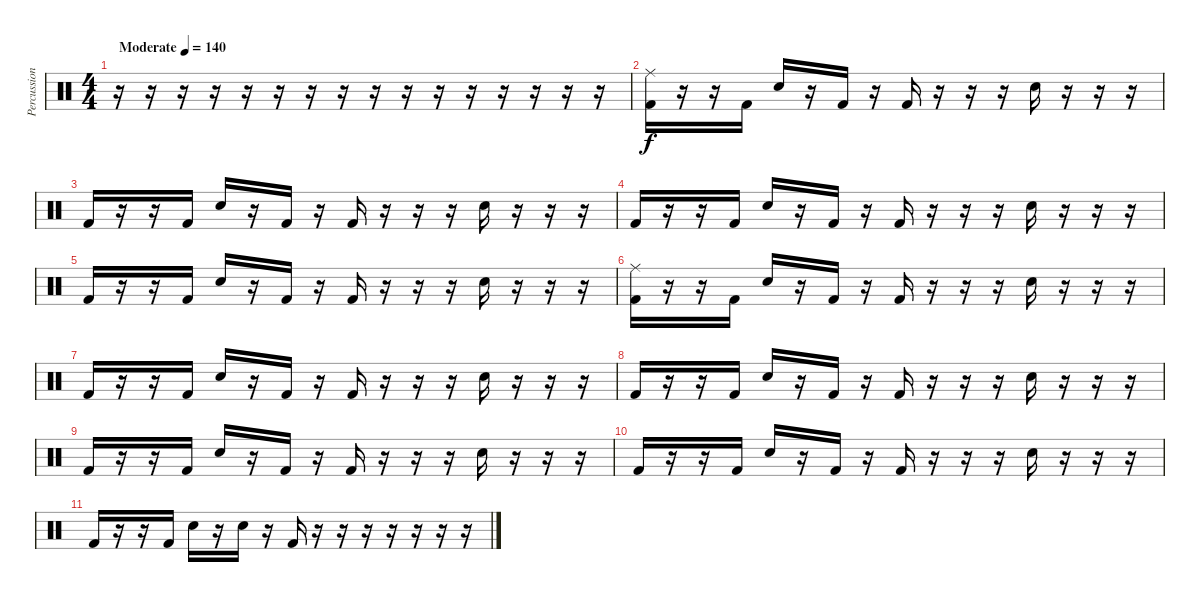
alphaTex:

\track ("Percussion" "Percussion") {instrument percussion}
\staff {score}
\articulation defaults
\ts (4 4)
\tempo (140 "Moderate")
\clef neutral
\ks c
r.16{dy f} r.16 r.16 r.16 r.16 r.16 r.16 r.16 r.16 r.16 r.16 r.16 r.16 r.16 r.16 r.16 |
("Ride (middle)" "Kick (hit) 2").16 r.16 r.16 "Kick (hit) 2".16 "Electric Snare (hit)".16 r.16 "Kick (hit) 2".16 r.16 "Kick (hit) 2".16 r.16 r.16 r.16 "Electric Snare (hit)".16 r.16 r.16 r.16 |
"Kick (hit) 2".16 r.16 r.16 "Kick (hit) 2".16 "Electric Snare (hit)".16 r.16 "Kick (hit) 2".16 r.16 "Kick (hit) 2".16 r.16 r.16 r.16 "Electric Snare (hit)".16 r.16 r.16 r.16 |
"Kick (hit) 2".16 r.16 r.16 "Kick (hit) 2".16 "Electric Snare (hit)".16 r.16 "Kick (hit) 2".16 r.16 "Kick (hit) 2".16 r.16 r.16 r.16 "Electric Snare (hit)".16 r.16 r.16 r.16 |
"Kick (hit) 2".16 r.16 r.16 "Kick (hit) 2".16 "Electric Snare (hit)".16 r.16 "Kick (hit) 2".16 r.16 "Kick (hit) 2".16 r.16 r.16 r.16 "Electric Snare (hit)".16 r.16 r.16 r.16 |
("Ride (middle)" "Kick (hit) 2").16 r.16 r.16 "Kick (hit) 2".16 "Electric Snare (hit)".16 r.16 "Kick (hit) 2".16 r.16 "Kick (hit) 2".16 r.16 r.16 r.16 "Electric Snare (hit)".16 r.16 r.16 r.16 |
"Kick (hit) 2".16 r.16 r.16 "Kick (hit) 2".16 "Electric Snare (hit)".16 r.16 "Kick (hit) 2".16 r.16 "Kick (hit) 2".16 r.16 r.16 r.16 "Electric Snare (hit)".16 r.16 r.16 r.16 |
"Kick (hit) 2".16 r.16 r.16 "Kick (hit) 2".16 "Electric Snare (hit)".16 r.16 "Kick (hit) 2".16 r.16 "Kick (hit) 2".16 r.16 r.16 r.16 "Electric Snare (hit)".16 r.16 r.16 r.16 |
"Kick (hit) 2".16 r.16 r.16 "Kick (hit) 2".16 "Electric Snare (hit)".16 r.16 "Kick (hit) 2".16 r.16 "Kick (hit) 2".16 r.16 r.16 r.16 "Electric Snare (hit)".16 r.16 r.16 r.16 |
"Kick (hit) 2".16 r.16 r.16 "Kick (hit) 2".16 "Electric Snare (hit)".16 r.16 "Kick (hit) 2".16 r.16 "Kick (hit) 2".16 r.16 r.16 r.16 "Electric Snare (hit)".16 r.16 r.16 r.16 |
"Kick (hit) 2".16 r.16 r.16 "Kick (hit) 2".16 "Electric Snare (hit)".16 r.16 "Electric Snare (hit)".16 r.16 "Kick (hit) 2".16 r.16 r.16 r.16 r.16 r.16 r.16 r.16
